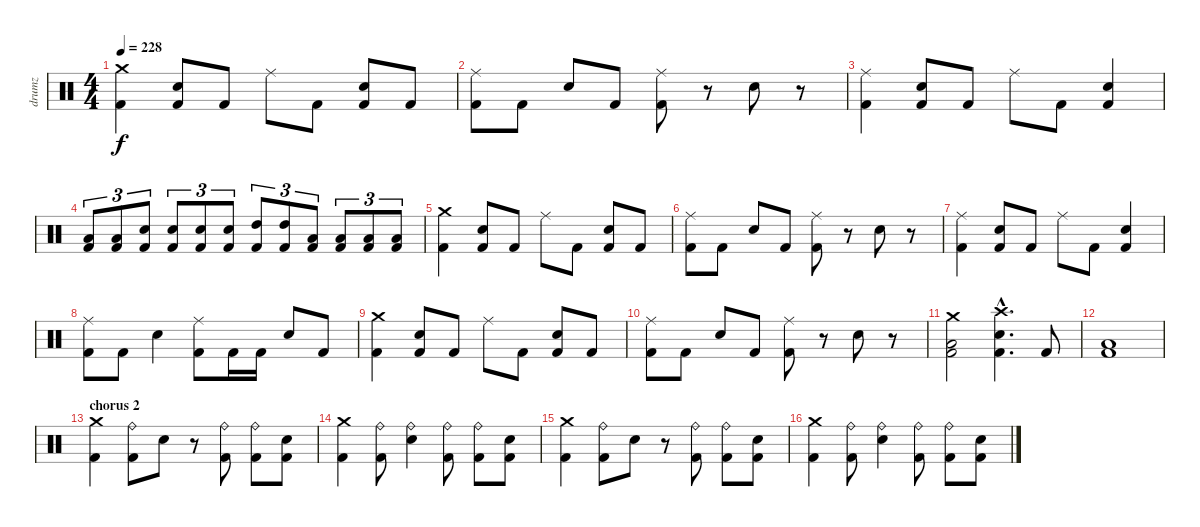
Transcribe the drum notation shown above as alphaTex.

\track ("drumz" "drumz") {instrument percussion}
\staff {score}
\articulation defaults
\ts (4 4)
\tempo 228
\clef neutral
\ks c
("Crash medium (hit)" "Kick (hit) 2").4{dy f} ("Snare (hit) 2" "Kick (hit) 2").8 "Kick (hit) 2".8 "Ride (middle)".8 "Kick (hit) 2".8 ("Snare (hit) 2" "Kick (hit) 2").8 "Kick (hit) 2".8 |
("Ride (middle)" "Kick (hit) 2").8 "Kick (hit) 2".8 "Snare (hit) 2".8 "Kick (hit) 2".8 ("Ride (middle)" "Kick (hit) 2").8 r.8 "Snare (hit) 2".8 r.8 |
("Ride (middle)" "Kick (hit) 2").4 ("Snare (hit) 2" "Kick (hit) 2").8 "Kick (hit) 2".8 "Ride (middle)".8 "Kick (hit) 2".8 ("Snare (hit) 2" "Kick (hit) 2").4 |
("Low Tom (hit)" "Kick (hit) 2").8{tu (3 2)} ("Low Tom (hit)" "Kick (hit) 2").8{tu (3 2)} ("Snare (hit) 2" "Kick (hit) 2").8{tu (3 2)} ("Snare (hit) 2" "Kick (hit) 2").8{tu (3 2)} ("Snare (hit) 2" "Kick (hit) 2").8{tu (3 2)} ("Snare (hit) 2" "Kick (hit) 2").8{tu (3 2)} ("High Tom (hit)" "Kick (hit) 2").8{tu (3 2)} ("High Tom (hit)" "Kick (hit) 2").8{tu (3 2)} ("Low Tom (hit)" "Kick (hit) 2").8{tu (3 2)} ("Low Tom (hit)" "Kick (hit) 2").8{tu (3 2)} ("Low Floor Tom (hit)" "Kick (hit) 2").8{tu (3 2)} ("Low Floor Tom (hit)" "Kick (hit) 2").8{tu (3 2)} |
("Crash medium (hit)" "Kick (hit) 2").4 ("Snare (hit) 2" "Kick (hit) 2").8 "Kick (hit) 2".8 "Ride (middle)".8 "Kick (hit) 2".8 ("Snare (hit) 2" "Kick (hit) 2").8 "Kick (hit) 2".8 |
("Ride (middle)" "Kick (hit) 2").8 "Kick (hit) 2".8 "Snare (hit) 2".8 "Kick (hit) 2".8 ("Ride (middle)" "Kick (hit) 2").8 r.8 "Snare (hit) 2".8 r.8 |
("Ride (middle)" "Kick (hit) 2").4 ("Snare (hit) 2" "Kick (hit) 2").8 "Kick (hit) 2".8 "Ride (middle)".8 "Kick (hit) 2".8 ("Snare (hit) 2" "Kick (hit) 2").4 |
("Ride (middle)" "Kick (hit) 2").8 "Kick (hit) 2".8 "Snare (hit) 2".4 ("Ride (middle)" "Kick (hit) 2").8 "Kick (hit) 2".16 "Kick (hit) 2".16 "Snare (hit) 2".8 "Kick (hit) 2".8 |
("Crash medium (hit)" "Kick (hit) 2").4 ("Snare (hit) 2" "Kick (hit) 2").8 "Kick (hit) 2".8 "Ride (middle)".8 "Kick (hit) 2".8 ("Snare (hit) 2" "Kick (hit) 2").8 "Kick (hit) 2".8 |
("Ride (middle)" "Kick (hit) 2").8 "Kick (hit) 2".8 "Snare (hit) 2".8 "Kick (hit) 2".8 ("Ride (middle)" "Kick (hit) 2").8 r.8 "Snare (hit) 2".8 r.8 |
("Crash medium (hit)" "Low Floor Tom (hit)" "Kick (hit) 2").2 ("Crash high (hit)"{hac} "Snare (hit) 2"{hac} "Kick (hit) 2"{hac}).4{d} "Kick (hit) 2".8 |
("Low Floor Tom (hit)" "Kick (hit) 2").1 |
\section ("" "chorus 2")
("Crash medium (hit)" "Kick (hit) 2").4 ("Ride (bell)" "Kick (hit) 2").8 "Snare (hit) 2".8 r.8 ("Ride (bell)" "Kick (hit) 2").8 ("Ride (bell)" "Kick (hit) 2").8 ("Snare (hit) 2" "Kick (hit) 2").8 |
("Crash medium (hit)" "Kick (hit) 2").4 ("Ride (bell)" "Kick (hit) 2").8 ("Ride (bell)" "Snare (hit) 2").4 ("Ride (bell)" "Kick (hit) 2").8 ("Ride (bell)" "Kick (hit) 2").8 ("Snare (hit) 2" "Kick (hit) 2").8 |
("Crash medium (hit)" "Kick (hit) 2").4 ("Ride (bell)" "Kick (hit) 2").8 "Snare (hit) 2".8 r.8 ("Ride (bell)" "Kick (hit) 2").8 ("Ride (bell)" "Kick (hit) 2").8 ("Snare (hit) 2" "Kick (hit) 2").8 |
("Crash medium (hit)" "Kick (hit) 2").4 ("Ride (bell)" "Kick (hit) 2").8 ("Ride (bell)" "Snare (hit) 2").4 ("Ride (bell)" "Kick (hit) 2").8 ("Ride (bell)" "Kick (hit) 2").8 ("Snare (hit) 2" "Kick (hit) 2").8
